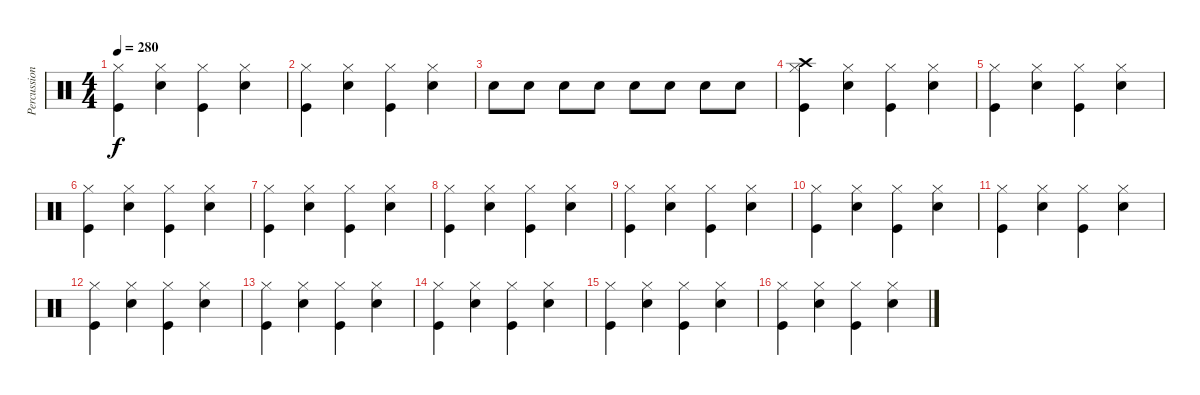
\track ("Percussion" "Percussion") {instrument percussion}
\staff {score}
\articulation defaults
\ts (4 4)
\tempo 280
\clef neutral
\ks c
("Hi-Hat (closed)" "Kick (hit)").4{dy f} ("Hi-Hat (closed)" "Snare (hit) 2").4 ("Hi-Hat (closed)" "Kick (hit)").4 ("Hi-Hat (closed)" "Snare (hit) 2").4 |
("Hi-Hat (closed)" "Kick (hit)").4 ("Hi-Hat (closed)" "Snare (hit) 2").4 ("Hi-Hat (closed)" "Kick (hit)").4 ("Hi-Hat (closed)" "Snare (hit) 2").4 |
"Snare (hit) 2".8 "Snare (hit) 2".8 "Snare (hit) 2".8 "Snare (hit) 2".8 "Snare (hit) 2".8 "Snare (hit) 2".8 "Snare (hit) 2".8 "Snare (hit) 2".8 |
("Crash high (hit)" "Hi-Hat (closed)" "Kick (hit)").4 ("Hi-Hat (closed)" "Snare (hit) 2").4 ("Hi-Hat (closed)" "Kick (hit)").4 ("Hi-Hat (closed)" "Snare (hit) 2").4 |
("Hi-Hat (closed)" "Kick (hit)").4 ("Hi-Hat (closed)" "Snare (hit) 2").4 ("Hi-Hat (closed)" "Kick (hit)").4 ("Hi-Hat (closed)" "Snare (hit) 2").4 |
("Hi-Hat (closed)" "Kick (hit)").4 ("Hi-Hat (closed)" "Snare (hit) 2").4 ("Hi-Hat (closed)" "Kick (hit)").4 ("Hi-Hat (closed)" "Snare (hit) 2").4 |
("Hi-Hat (closed)" "Kick (hit)").4 ("Hi-Hat (closed)" "Snare (hit) 2").4 ("Hi-Hat (closed)" "Kick (hit)").4 ("Hi-Hat (closed)" "Snare (hit) 2").4 |
("Hi-Hat (closed)" "Kick (hit)").4 ("Hi-Hat (closed)" "Snare (hit) 2").4 ("Hi-Hat (closed)" "Kick (hit)").4 ("Hi-Hat (closed)" "Snare (hit) 2").4 |
("Hi-Hat (closed)" "Kick (hit)").4 ("Hi-Hat (closed)" "Snare (hit) 2").4 ("Hi-Hat (closed)" "Kick (hit)").4 ("Hi-Hat (closed)" "Snare (hit) 2").4 |
("Hi-Hat (closed)" "Kick (hit)").4 ("Hi-Hat (closed)" "Snare (hit) 2").4 ("Hi-Hat (closed)" "Kick (hit)").4 ("Hi-Hat (closed)" "Snare (hit) 2").4 |
("Hi-Hat (closed)" "Kick (hit)").4 ("Hi-Hat (closed)" "Snare (hit) 2").4 ("Hi-Hat (closed)" "Kick (hit)").4 ("Hi-Hat (closed)" "Snare (hit) 2").4 |
("Hi-Hat (closed)" "Kick (hit)").4 ("Hi-Hat (closed)" "Snare (hit) 2").4 ("Hi-Hat (closed)" "Kick (hit)").4 ("Hi-Hat (closed)" "Snare (hit) 2").4 |
("Hi-Hat (closed)" "Kick (hit)").4 ("Hi-Hat (closed)" "Snare (hit) 2").4 ("Hi-Hat (closed)" "Kick (hit)").4 ("Hi-Hat (closed)" "Snare (hit) 2").4 |
("Hi-Hat (closed)" "Kick (hit)").4 ("Hi-Hat (closed)" "Snare (hit) 2").4 ("Hi-Hat (closed)" "Kick (hit)").4 ("Hi-Hat (closed)" "Snare (hit) 2").4 |
("Hi-Hat (closed)" "Kick (hit)").4 ("Hi-Hat (closed)" "Snare (hit) 2").4 ("Hi-Hat (closed)" "Kick (hit)").4 ("Hi-Hat (closed)" "Snare (hit) 2").4 |
("Hi-Hat (closed)" "Kick (hit)").4 ("Hi-Hat (closed)" "Snare (hit) 2").4 ("Hi-Hat (closed)" "Kick (hit)").4 ("Hi-Hat (closed)" "Snare (hit) 2").4
